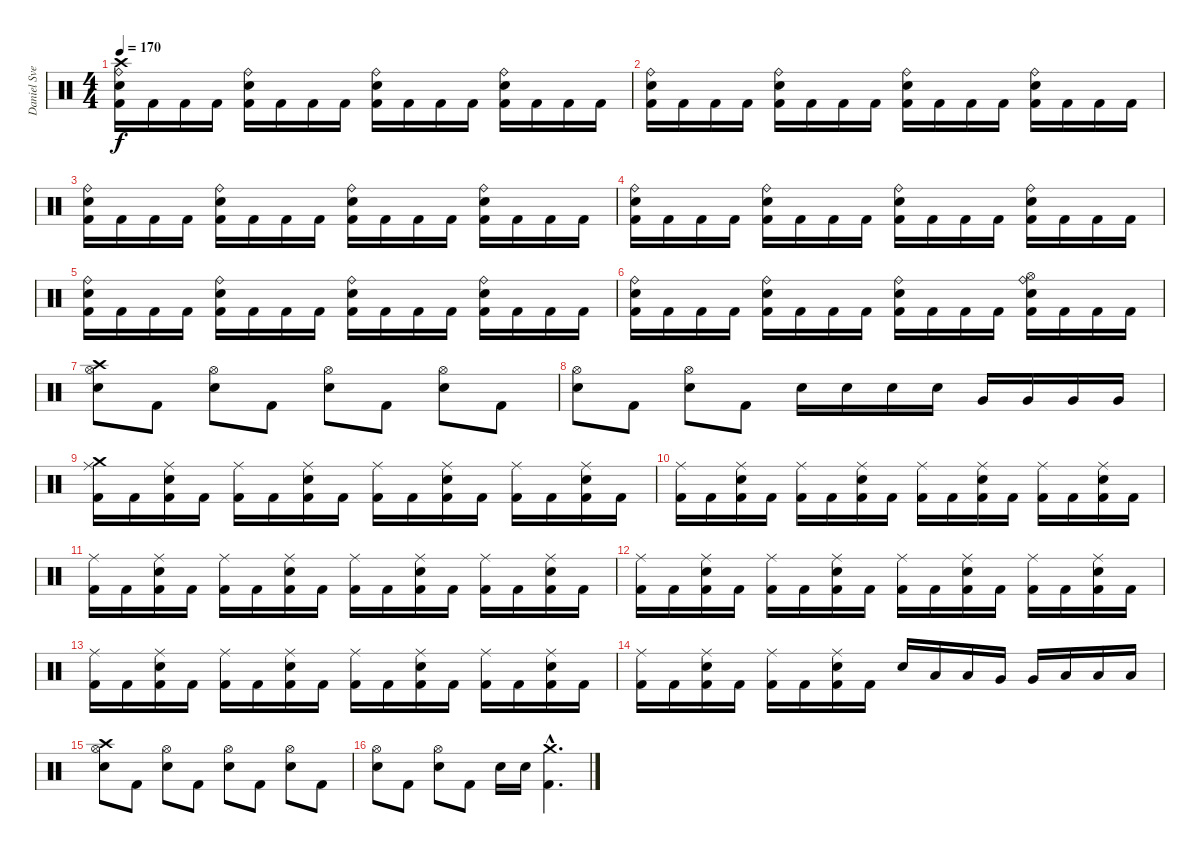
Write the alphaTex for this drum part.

\track ("Daniel Svensson" "Daniel Sve") {instrument percussion}
\staff {score}
\articulation defaults
\ts (4 4)
\tempo 170
\clef neutral
\ks c
("Ride (bell)" "Crash high (hit)" "Electric Snare (hit)" "Kick (hit) 2").16{dy f} "Kick (hit) 2".16 "Kick (hit) 2".16 "Kick (hit) 2".16 ("Ride (bell)" "Electric Snare (hit)" "Kick (hit) 2").16 "Kick (hit) 2".16 "Kick (hit) 2".16 "Kick (hit) 2".16 ("Ride (bell)" "Electric Snare (hit)" "Kick (hit) 2").16 "Kick (hit) 2".16 "Kick (hit) 2".16 "Kick (hit) 2".16 ("Ride (bell)" "Electric Snare (hit)" "Kick (hit) 2").16 "Kick (hit) 2".16 "Kick (hit) 2".16 "Kick (hit) 2".16 |
("Ride (bell)" "Electric Snare (hit)" "Kick (hit) 2").16 "Kick (hit) 2".16 "Kick (hit) 2".16 "Kick (hit) 2".16 ("Ride (bell)" "Electric Snare (hit)" "Kick (hit) 2").16 "Kick (hit) 2".16 "Kick (hit) 2".16 "Kick (hit) 2".16 ("Ride (bell)" "Electric Snare (hit)" "Kick (hit) 2").16 "Kick (hit) 2".16 "Kick (hit) 2".16 "Kick (hit) 2".16 ("Ride (bell)" "Electric Snare (hit)" "Kick (hit) 2").16 "Kick (hit) 2".16 "Kick (hit) 2".16 "Kick (hit) 2".16 |
("Ride (bell)" "Electric Snare (hit)" "Kick (hit) 2").16 "Kick (hit) 2".16 "Kick (hit) 2".16 "Kick (hit) 2".16 ("Ride (bell)" "Electric Snare (hit)" "Kick (hit) 2").16 "Kick (hit) 2".16 "Kick (hit) 2".16 "Kick (hit) 2".16 ("Ride (bell)" "Electric Snare (hit)" "Kick (hit) 2").16 "Kick (hit) 2".16 "Kick (hit) 2".16 "Kick (hit) 2".16 ("Ride (bell)" "Electric Snare (hit)" "Kick (hit) 2").16 "Kick (hit) 2".16 "Kick (hit) 2".16 "Kick (hit) 2".16 |
("Ride (bell)" "Electric Snare (hit)" "Kick (hit) 2").16 "Kick (hit) 2".16 "Kick (hit) 2".16 "Kick (hit) 2".16 ("Ride (bell)" "Electric Snare (hit)" "Kick (hit) 2").16 "Kick (hit) 2".16 "Kick (hit) 2".16 "Kick (hit) 2".16 ("Ride (bell)" "Electric Snare (hit)" "Kick (hit) 2").16 "Kick (hit) 2".16 "Kick (hit) 2".16 "Kick (hit) 2".16 ("Ride (bell)" "Electric Snare (hit)" "Kick (hit) 2").16 "Kick (hit) 2".16 "Kick (hit) 2".16 "Kick (hit) 2".16 |
("Ride (bell)" "Electric Snare (hit)" "Kick (hit) 2").16 "Kick (hit) 2".16 "Kick (hit) 2".16 "Kick (hit) 2".16 ("Ride (bell)" "Electric Snare (hit)" "Kick (hit) 2").16 "Kick (hit) 2".16 "Kick (hit) 2".16 "Kick (hit) 2".16 ("Ride (bell)" "Electric Snare (hit)" "Kick (hit) 2").16 "Kick (hit) 2".16 "Kick (hit) 2".16 "Kick (hit) 2".16 ("Ride (bell)" "Electric Snare (hit)" "Kick (hit) 2").16 "Kick (hit) 2".16 "Kick (hit) 2".16 "Kick (hit) 2".16 |
("Ride (bell)" "Electric Snare (hit)" "Kick (hit) 2").16 "Kick (hit) 2".16 "Kick (hit) 2".16 "Kick (hit) 2".16 ("Ride (bell)" "Electric Snare (hit)" "Kick (hit) 2").16 "Kick (hit) 2".16 "Kick (hit) 2".16 "Kick (hit) 2".16 ("Ride (bell)" "Electric Snare (hit)" "Kick (hit) 2").16 "Kick (hit) 2".16 "Kick (hit) 2".16 "Kick (hit) 2".16 ("Ride (bell)" "Hi-Hat (open)" "Electric Snare (hit)" "Kick (hit) 2").16 "Kick (hit) 2".16 "Kick (hit) 2".16 "Kick (hit) 2".16 |
("Crash high (hit)" "Hi-Hat (open)" "Electric Snare (hit)").8 "Kick (hit) 2".8 ("Hi-Hat (open)" "Electric Snare (hit)").8 "Kick (hit) 2".8 ("Hi-Hat (open)" "Electric Snare (hit)").8 "Kick (hit) 2".8 ("Hi-Hat (open)" "Electric Snare (hit)").8 "Kick (hit) 2".8 |
("Hi-Hat (open)" "Electric Snare (hit)").8 "Kick (hit) 2".8 ("Hi-Hat (open)" "Electric Snare (hit)").8 "Kick (hit) 2".8 "Electric Snare (hit)".16 "Electric Snare (hit)".16 "Electric Snare (hit)".16 "Electric Snare (hit)".16 "Very Low Tom (hit)".16 "Very Low Tom (hit)".16 "Very Low Tom (hit)".16 "Very Low Tom (hit)".16 |
("Ride (middle)" "Crash medium (hit)" "Kick (hit) 2").16 "Kick (hit) 2".16 ("Ride (middle)" "Electric Snare (hit)" "Kick (hit) 2").16 "Kick (hit) 2".16 ("Ride (middle)" "Kick (hit) 2").16 "Kick (hit) 2".16 ("Ride (middle)" "Electric Snare (hit)" "Kick (hit) 2").16 "Kick (hit) 2".16 ("Ride (middle)" "Kick (hit) 2").16 "Kick (hit) 2".16 ("Ride (middle)" "Electric Snare (hit)" "Kick (hit) 2").16 "Kick (hit) 2".16 ("Ride (middle)" "Kick (hit) 2").16 "Kick (hit) 2".16 ("Ride (middle)" "Electric Snare (hit)" "Kick (hit) 2").16 "Kick (hit) 2".16 |
("Ride (middle)" "Kick (hit) 2").16 "Kick (hit) 2".16 ("Ride (middle)" "Electric Snare (hit)" "Kick (hit) 2").16 "Kick (hit) 2".16 ("Ride (middle)" "Kick (hit) 2").16 "Kick (hit) 2".16 ("Ride (middle)" "Electric Snare (hit)" "Kick (hit) 2").16 "Kick (hit) 2".16 ("Ride (middle)" "Kick (hit) 2").16 "Kick (hit) 2".16 ("Ride (middle)" "Electric Snare (hit)" "Kick (hit) 2").16 "Kick (hit) 2".16 ("Ride (middle)" "Kick (hit) 2").16 "Kick (hit) 2".16 ("Ride (middle)" "Electric Snare (hit)" "Kick (hit) 2").16 "Kick (hit) 2".16 |
("Ride (middle)" "Kick (hit) 2").16 "Kick (hit) 2".16 ("Ride (middle)" "Electric Snare (hit)" "Kick (hit) 2").16 "Kick (hit) 2".16 ("Ride (middle)" "Kick (hit) 2").16 "Kick (hit) 2".16 ("Ride (middle)" "Electric Snare (hit)" "Kick (hit) 2").16 "Kick (hit) 2".16 ("Ride (middle)" "Kick (hit) 2").16 "Kick (hit) 2".16 ("Ride (middle)" "Electric Snare (hit)" "Kick (hit) 2").16 "Kick (hit) 2".16 ("Ride (middle)" "Kick (hit) 2").16 "Kick (hit) 2".16 ("Ride (middle)" "Electric Snare (hit)" "Kick (hit) 2").16 "Kick (hit) 2".16 |
("Ride (middle)" "Kick (hit) 2").16 "Kick (hit) 2".16 ("Ride (middle)" "Electric Snare (hit)" "Kick (hit) 2").16 "Kick (hit) 2".16 ("Ride (middle)" "Kick (hit) 2").16 "Kick (hit) 2".16 ("Ride (middle)" "Electric Snare (hit)" "Kick (hit) 2").16 "Kick (hit) 2".16 ("Ride (middle)" "Kick (hit) 2").16 "Kick (hit) 2".16 ("Ride (middle)" "Electric Snare (hit)" "Kick (hit) 2").16 "Kick (hit) 2".16 ("Ride (middle)" "Kick (hit) 2").16 "Kick (hit) 2".16 ("Ride (middle)" "Electric Snare (hit)" "Kick (hit) 2").16 "Kick (hit) 2".16 |
("Ride (middle)" "Kick (hit) 2").16 "Kick (hit) 2".16 ("Ride (middle)" "Electric Snare (hit)" "Kick (hit) 2").16 "Kick (hit) 2".16 ("Ride (middle)" "Kick (hit) 2").16 "Kick (hit) 2".16 ("Ride (middle)" "Electric Snare (hit)" "Kick (hit) 2").16 "Kick (hit) 2".16 ("Ride (middle)" "Kick (hit) 2").16 "Kick (hit) 2".16 ("Ride (middle)" "Electric Snare (hit)" "Kick (hit) 2").16 "Kick (hit) 2".16 ("Ride (middle)" "Kick (hit) 2").16 "Kick (hit) 2".16 ("Ride (middle)" "Electric Snare (hit)" "Kick (hit) 2").16 "Kick (hit) 2".16 |
("Ride (middle)" "Kick (hit) 2").16 "Kick (hit) 2".16 ("Ride (middle)" "Electric Snare (hit)" "Kick (hit) 2").16 "Kick (hit) 2".16 ("Ride (middle)" "Kick (hit) 2").16 "Kick (hit) 2".16 ("Ride (middle)" "Electric Snare (hit)" "Kick (hit) 2").16 "Kick (hit) 2".16 "Electric Snare (hit)".16 "Low Tom (hit)".16 "Low Tom (hit)".16 "Very Low Tom (hit)".16 "Very Low Tom (hit)".16 "Low Floor Tom (hit)".16 "Low Floor Tom (hit)".16 "Low Floor Tom (hit)".16 |
("Crash high (hit)" "Hi-Hat (open)" "Electric Snare (hit)").8 "Kick (hit) 2".8 ("Hi-Hat (open)" "Electric Snare (hit)").8 "Kick (hit) 2".8 ("Hi-Hat (open)" "Electric Snare (hit)").8 "Kick (hit) 2".8 ("Hi-Hat (open)" "Electric Snare (hit)").8 "Kick (hit) 2".8 |
("Hi-Hat (open)" "Electric Snare (hit)").8 "Kick (hit) 2".8 ("Hi-Hat (open)" "Electric Snare (hit)").8 "Kick (hit) 2".8 "Electric Snare (hit)".16 "Electric Snare (hit)".16 ("Crash medium (hit)"{hac} "Kick (hit) 2"{hac}).4{d}
